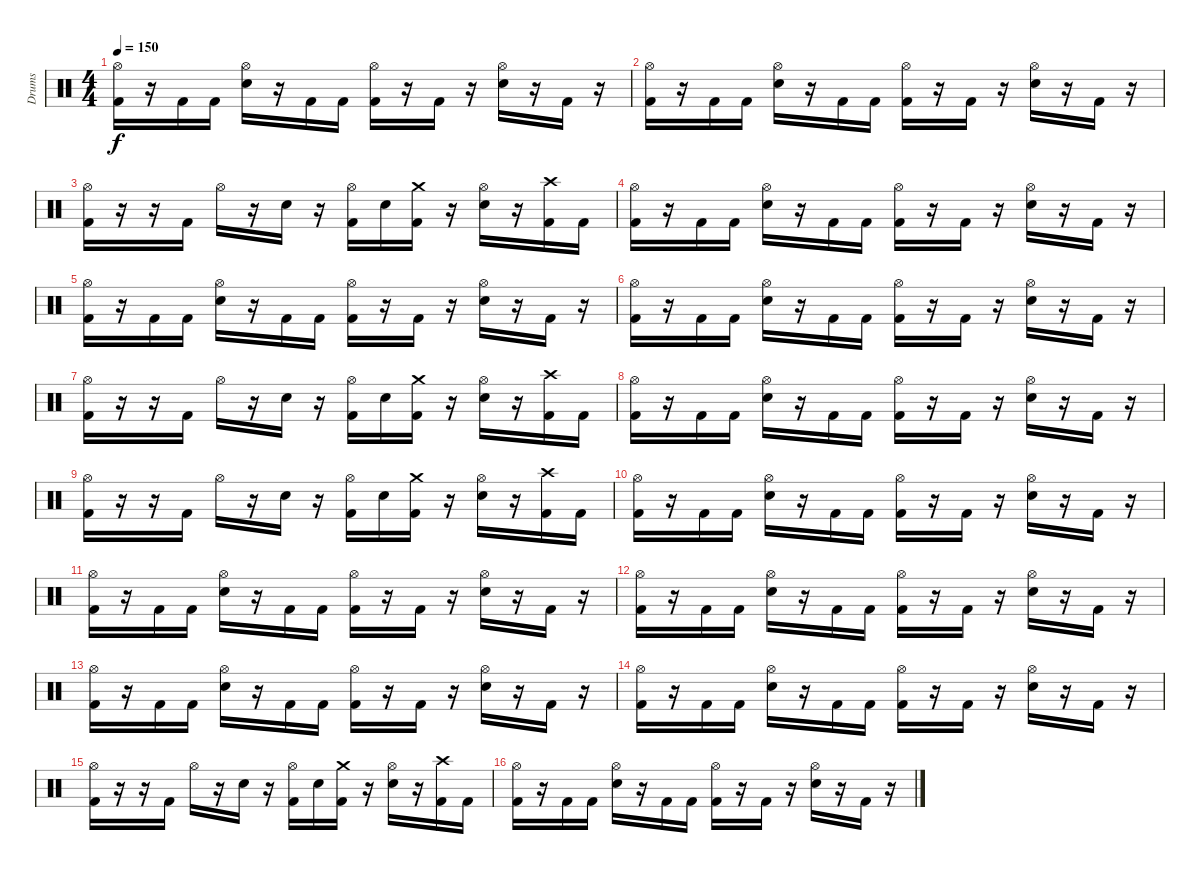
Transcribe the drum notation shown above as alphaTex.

\track ("Drums" "Drums") {instrument percussion}
\staff {score}
\articulation defaults
\ts (4 4)
\tempo 150
\clef neutral
\ks c
("Hi-Hat (open)" "Kick (hit) 2").16{dy f} r.16 "Kick (hit) 2".16 "Kick (hit) 2".16 ("Hi-Hat (open)" "Snare (hit) 2").16 r.16 "Kick (hit) 2".16 "Kick (hit) 2".16 ("Hi-Hat (open)" "Kick (hit) 2").16 r.16 "Kick (hit) 2".16 r.16 ("Hi-Hat (open)" "Snare (hit) 2").16 r.16 "Kick (hit) 2".16 r.16 |
("Hi-Hat (open)" "Kick (hit) 2").16 r.16 "Kick (hit) 2".16 "Kick (hit) 2".16 ("Hi-Hat (open)" "Snare (hit) 2").16 r.16 "Kick (hit) 2".16 "Kick (hit) 2".16 ("Hi-Hat (open)" "Kick (hit) 2").16 r.16 "Kick (hit) 2".16 r.16 ("Hi-Hat (open)" "Snare (hit) 2").16 r.16 "Kick (hit) 2".16 r.16 |
("Hi-Hat (open)" "Kick (hit) 2").16 r.16 r.16 "Kick (hit) 2".16 "Hi-Hat (open)".16 r.16 "Snare (hit) 2".16 r.16 ("Hi-Hat (open)" "Kick (hit) 2").16 "Snare (hit) 2".16 ("Crash medium (hit)" "Kick (hit) 2").16 r.16 ("Hi-Hat (open)" "Snare (hit) 2").16 r.16 ("Crash high (hit)" "Kick (hit) 2").16 "Kick (hit) 2".16 |
("Hi-Hat (open)" "Kick (hit) 2").16 r.16 "Kick (hit) 2".16 "Kick (hit) 2".16 ("Hi-Hat (open)" "Snare (hit) 2").16 r.16 "Kick (hit) 2".16 "Kick (hit) 2".16 ("Hi-Hat (open)" "Kick (hit) 2").16 r.16 "Kick (hit) 2".16 r.16 ("Hi-Hat (open)" "Snare (hit) 2").16 r.16 "Kick (hit) 2".16 r.16 |
("Hi-Hat (open)" "Kick (hit) 2").16 r.16 "Kick (hit) 2".16 "Kick (hit) 2".16 ("Hi-Hat (open)" "Snare (hit) 2").16 r.16 "Kick (hit) 2".16 "Kick (hit) 2".16 ("Hi-Hat (open)" "Kick (hit) 2").16 r.16 "Kick (hit) 2".16 r.16 ("Hi-Hat (open)" "Snare (hit) 2").16 r.16 "Kick (hit) 2".16 r.16 |
("Hi-Hat (open)" "Kick (hit) 2").16 r.16 "Kick (hit) 2".16 "Kick (hit) 2".16 ("Hi-Hat (open)" "Snare (hit) 2").16 r.16 "Kick (hit) 2".16 "Kick (hit) 2".16 ("Hi-Hat (open)" "Kick (hit) 2").16 r.16 "Kick (hit) 2".16 r.16 ("Hi-Hat (open)" "Snare (hit) 2").16 r.16 "Kick (hit) 2".16 r.16 |
("Hi-Hat (open)" "Kick (hit) 2").16 r.16 r.16 "Kick (hit) 2".16 "Hi-Hat (open)".16 r.16 "Snare (hit) 2".16 r.16 ("Hi-Hat (open)" "Kick (hit) 2").16 "Snare (hit) 2".16 ("Crash medium (hit)" "Kick (hit) 2").16 r.16 ("Hi-Hat (open)" "Snare (hit) 2").16 r.16 ("Crash high (hit)" "Kick (hit) 2").16 "Kick (hit) 2".16 |
("Hi-Hat (open)" "Kick (hit) 2").16 r.16 "Kick (hit) 2".16 "Kick (hit) 2".16 ("Hi-Hat (open)" "Snare (hit) 2").16 r.16 "Kick (hit) 2".16 "Kick (hit) 2".16 ("Hi-Hat (open)" "Kick (hit) 2").16 r.16 "Kick (hit) 2".16 r.16 ("Hi-Hat (open)" "Snare (hit) 2").16 r.16 "Kick (hit) 2".16 r.16 |
("Hi-Hat (open)" "Kick (hit) 2").16 r.16 r.16 "Kick (hit) 2".16 "Hi-Hat (open)".16 r.16 "Snare (hit) 2".16 r.16 ("Hi-Hat (open)" "Kick (hit) 2").16 "Snare (hit) 2".16 ("Crash medium (hit)" "Kick (hit) 2").16 r.16 ("Hi-Hat (open)" "Snare (hit) 2").16 r.16 ("Crash high (hit)" "Kick (hit) 2").16 "Kick (hit) 2".16 |
("Hi-Hat (open)" "Kick (hit) 2").16 r.16 "Kick (hit) 2".16 "Kick (hit) 2".16 ("Hi-Hat (open)" "Snare (hit) 2").16 r.16 "Kick (hit) 2".16 "Kick (hit) 2".16 ("Hi-Hat (open)" "Kick (hit) 2").16 r.16 "Kick (hit) 2".16 r.16 ("Hi-Hat (open)" "Snare (hit) 2").16 r.16 "Kick (hit) 2".16 r.16 |
("Hi-Hat (open)" "Kick (hit) 2").16 r.16 "Kick (hit) 2".16 "Kick (hit) 2".16 ("Hi-Hat (open)" "Snare (hit) 2").16 r.16 "Kick (hit) 2".16 "Kick (hit) 2".16 ("Hi-Hat (open)" "Kick (hit) 2").16 r.16 "Kick (hit) 2".16 r.16 ("Hi-Hat (open)" "Snare (hit) 2").16 r.16 "Kick (hit) 2".16 r.16 |
("Hi-Hat (open)" "Kick (hit) 2").16 r.16 "Kick (hit) 2".16 "Kick (hit) 2".16 ("Hi-Hat (open)" "Snare (hit) 2").16 r.16 "Kick (hit) 2".16 "Kick (hit) 2".16 ("Hi-Hat (open)" "Kick (hit) 2").16 r.16 "Kick (hit) 2".16 r.16 ("Hi-Hat (open)" "Snare (hit) 2").16 r.16 "Kick (hit) 2".16 r.16 |
("Hi-Hat (open)" "Kick (hit) 2").16 r.16 "Kick (hit) 2".16 "Kick (hit) 2".16 ("Hi-Hat (open)" "Snare (hit) 2").16 r.16 "Kick (hit) 2".16 "Kick (hit) 2".16 ("Hi-Hat (open)" "Kick (hit) 2").16 r.16 "Kick (hit) 2".16 r.16 ("Hi-Hat (open)" "Snare (hit) 2").16 r.16 "Kick (hit) 2".16 r.16 |
("Hi-Hat (open)" "Kick (hit) 2").16 r.16 "Kick (hit) 2".16 "Kick (hit) 2".16 ("Hi-Hat (open)" "Snare (hit) 2").16 r.16 "Kick (hit) 2".16 "Kick (hit) 2".16 ("Hi-Hat (open)" "Kick (hit) 2").16 r.16 "Kick (hit) 2".16 r.16 ("Hi-Hat (open)" "Snare (hit) 2").16 r.16 "Kick (hit) 2".16 r.16 |
("Hi-Hat (open)" "Kick (hit) 2").16 r.16 r.16 "Kick (hit) 2".16 "Hi-Hat (open)".16 r.16 "Snare (hit) 2".16 r.16 ("Hi-Hat (open)" "Kick (hit) 2").16 "Snare (hit) 2".16 ("Crash medium (hit)" "Kick (hit) 2").16 r.16 ("Hi-Hat (open)" "Snare (hit) 2").16 r.16 ("Crash high (hit)" "Kick (hit) 2").16 "Kick (hit) 2".16 |
("Hi-Hat (open)" "Kick (hit) 2").16 r.16 "Kick (hit) 2".16 "Kick (hit) 2".16 ("Hi-Hat (open)" "Snare (hit) 2").16 r.16 "Kick (hit) 2".16 "Kick (hit) 2".16 ("Hi-Hat (open)" "Kick (hit) 2").16 r.16 "Kick (hit) 2".16 r.16 ("Hi-Hat (open)" "Snare (hit) 2").16 r.16 "Kick (hit) 2".16 r.16
